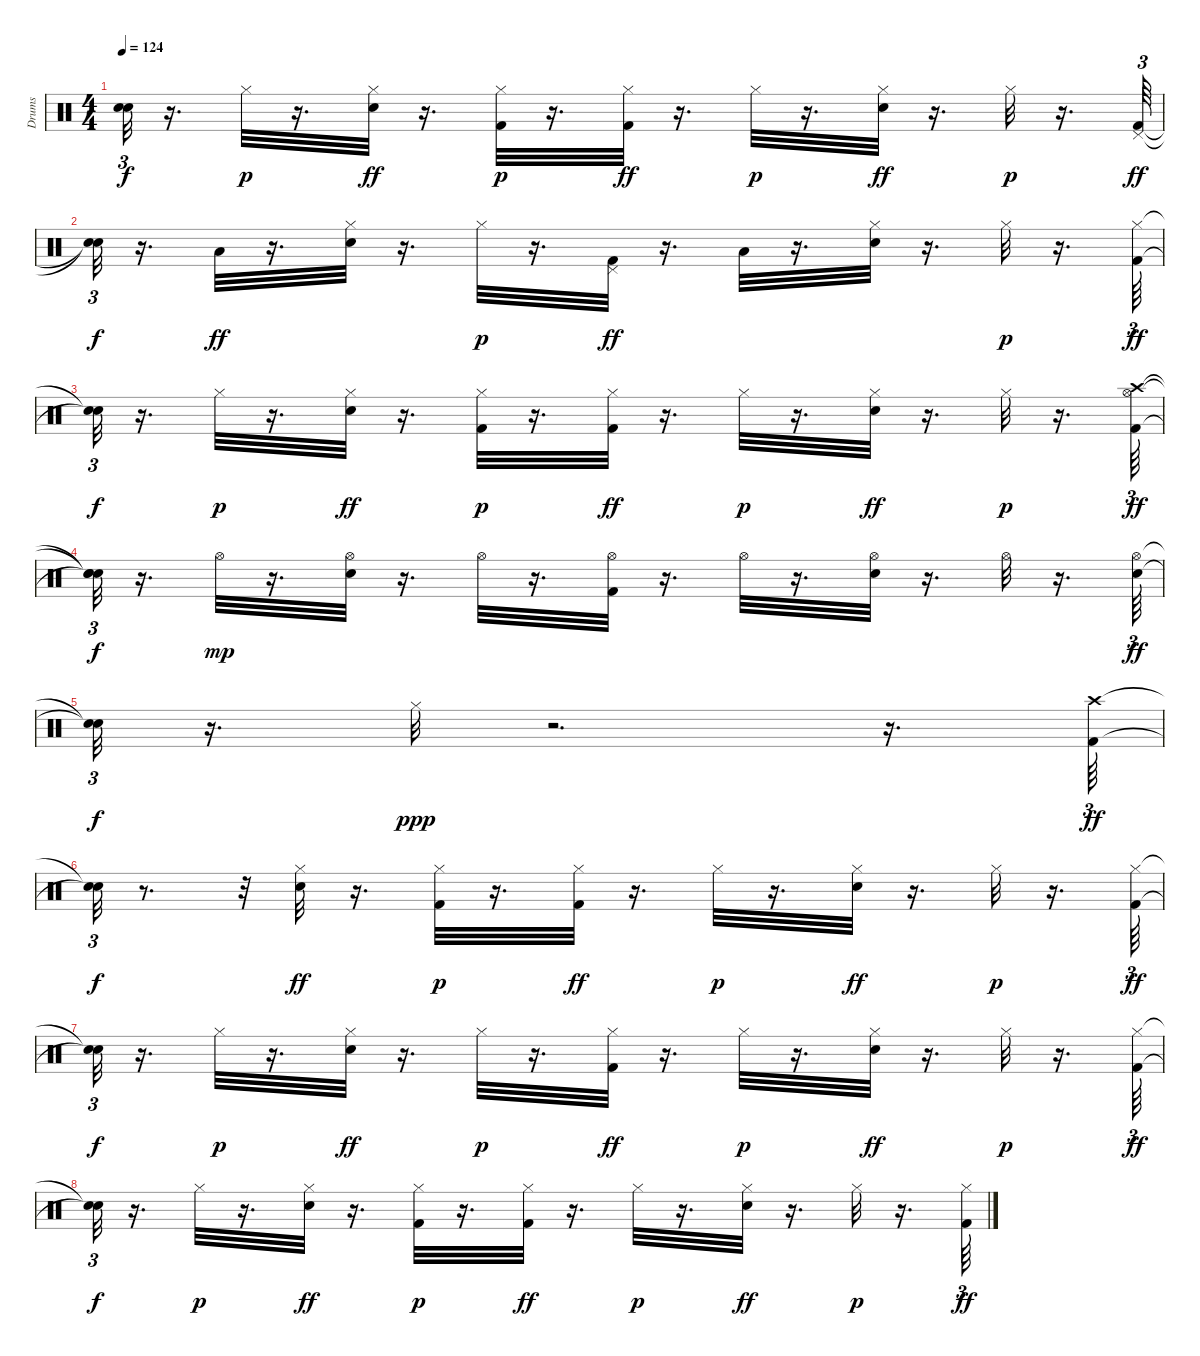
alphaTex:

\track ("Drums" "Drums") {instrument percussion}
\staff {score}
\articulation defaults
\ts (4 4)
\tempo 124
\clef neutral
\ks c
("Snare (hit)"{t} "Snare (hit)"{t}).32{tu (3 2) dy f} r.16{d} "Hi-Hat (closed)".32{dy p} r.16{d} ("Snare (hit) 2" "Hi-Hat (closed)").32{dy ff} r.16{d} ("Kick (hit) 2" "Hi-Hat (closed)").32{dy p} r.16{d} ("Kick (hit) 2" "Hi-Hat (closed)").32{dy ff} r.16{d} "Hi-Hat (closed)".32{dy p} r.16{d} ("Snare (hit) 2" "Hi-Hat (closed)").32{dy ff} r.16{d} "Hi-Hat (closed)".32{dy p} r.16{d} ("Kick (hit) 2" "Pedal Hi-Hat (hit)").64{tu (3 2) dy ff} |
("Snare (hit)"{t} "Snare (hit)"{t}).32{tu (3 2) dy f} r.16{d} "Low Floor Tom (hit)".32{dy ff} r.16{d} ("Snare (hit) 2" "Hi-Hat (closed)").32 r.16{d} "Hi-Hat (closed)".32{dy p} r.16{d} ("Kick (hit) 2" "Pedal Hi-Hat (hit)").32{dy ff} r.16{d} "Low Floor Tom (hit)".32 r.16{d} ("Snare (hit) 2" "Hi-Hat (closed)").32 r.16{d} "Hi-Hat (closed)".32{dy p} r.16{d} ("Kick (hit) 2" "Hi-Hat (closed)").64{tu (3 2) dy ff} |
("Snare (hit)"{t} "Snare (hit)"{t}).32{tu (3 2) dy f} r.16{d} "Hi-Hat (closed)".32{dy p} r.16{d} ("Snare (hit) 2" "Hi-Hat (closed)").32{dy ff} r.16{d} ("Kick (hit) 2" "Hi-Hat (closed)").32{dy p} r.16{d} ("Kick (hit) 2" "Hi-Hat (closed)").32{dy ff} r.16{d} "Hi-Hat (closed)".32{dy p} r.16{d} ("Snare (hit) 2" "Hi-Hat (closed)").32{dy ff} r.16{d} "Hi-Hat (closed)".32{dy p} r.16{d} ("Kick (hit) 2" "Hi-Hat (open)" "Crash high (hit)").64{tu (3 2) dy ff} |
("Snare (hit)"{t} "Snare (hit)"{t} "Snare (hit)"{t}).32{tu (3 2) dy f} r.16{d} "Hi-Hat (open)".32{dy mp} r.16{d} ("Snare (hit) 2" "Hi-Hat (open)").32 r.16{d} "Hi-Hat (open)".32 r.16{d} ("Kick (hit) 2" "Hi-Hat (open)").32 r.16{d} "Hi-Hat (open)".32 r.16{d} ("Snare (hit) 2" "Hi-Hat (open)").32 r.16{d} "Hi-Hat (open)".32 r.16{d} ("Snare (hit) 2" "Hi-Hat (open)").64{tu (3 2) dy ff} |
("Snare (hit)"{t} "Snare (hit)"{t}).32{tu (3 2) dy f} r.16{d} "Hi-Hat (closed)".32{dy ppp} r.2{d} r.16{d} ("Kick (hit) 2" "Crash high (hit)").64{tu (3 2) dy ff} |
("Snare (hit)"{t} "Snare (hit)"{t}).32{tu (3 2) dy f} r.8{d} r.32 ("Snare (hit) 2" "Hi-Hat (closed)").32{dy ff} r.16{d} ("Kick (hit) 2" "Hi-Hat (closed)").32{dy p} r.16{d} ("Kick (hit) 2" "Hi-Hat (closed)").32{dy ff} r.16{d} "Hi-Hat (closed)".32{dy p} r.16{d} ("Snare (hit) 2" "Hi-Hat (closed)").32{dy ff} r.16{d} "Hi-Hat (closed)".32{dy p} r.16{d} ("Kick (hit) 2" "Hi-Hat (closed)").64{tu (3 2) dy ff} |
("Snare (hit)"{t} "Snare (hit)"{t}).32{tu (3 2) dy f} r.16{d} "Hi-Hat (closed)".32{dy p} r.16{d} ("Snare (hit) 2" "Hi-Hat (closed)").32{dy ff} r.16{d} "Hi-Hat (closed)".32{dy p} r.16{d} ("Kick (hit) 2" "Hi-Hat (closed)").32{dy ff} r.16{d} "Hi-Hat (closed)".32{dy p} r.16{d} ("Snare (hit) 2" "Hi-Hat (closed)").32{dy ff} r.16{d} "Hi-Hat (closed)".32{dy p} r.16{d} ("Kick (hit) 2" "Hi-Hat (closed)").64{tu (3 2) dy ff} |
("Snare (hit)"{t} "Snare (hit)"{t}).32{tu (3 2) dy f} r.16{d} "Hi-Hat (closed)".32{dy p} r.16{d} ("Snare (hit) 2" "Hi-Hat (closed)").32{dy ff} r.16{d} ("Kick (hit) 2" "Hi-Hat (closed)").32{dy p} r.16{d} ("Kick (hit) 2" "Hi-Hat (closed)").32{dy ff} r.16{d} "Hi-Hat (closed)".32{dy p} r.16{d} ("Snare (hit) 2" "Hi-Hat (closed)").32{dy ff} r.16{d} "Hi-Hat (closed)".32{dy p} r.16{d} ("Kick (hit) 2" "Hi-Hat (closed)").64{tu (3 2) dy ff}
